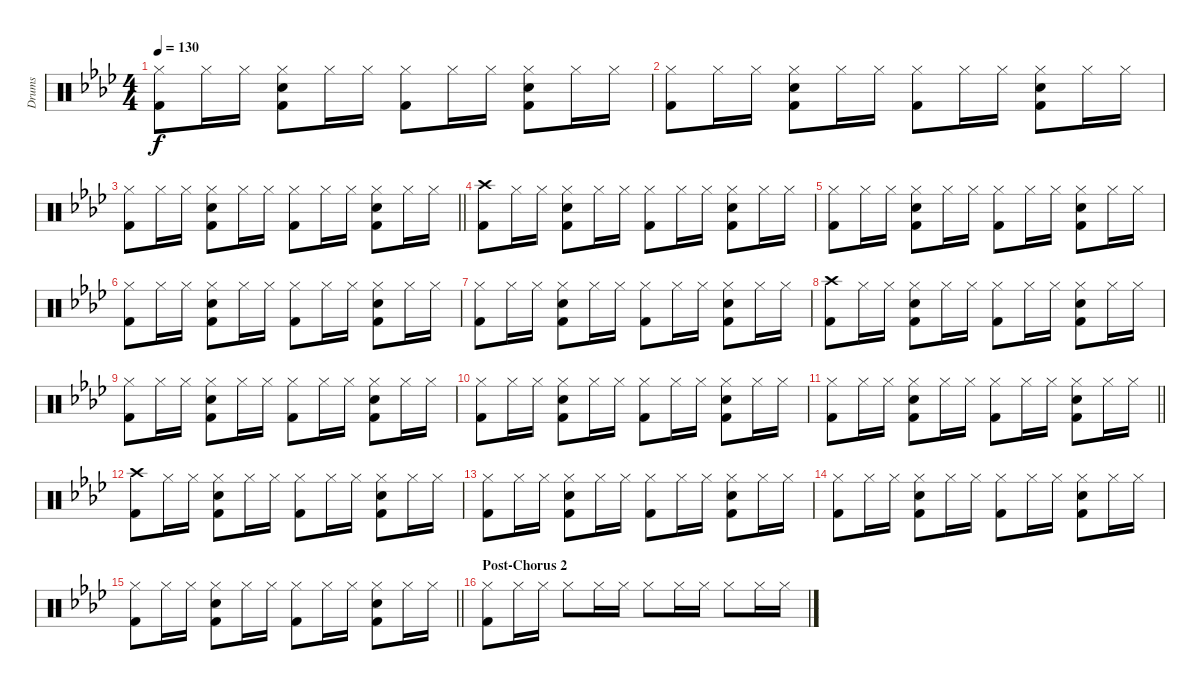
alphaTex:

\track ("Drums" "Drums") {instrument percussion}
\staff {score}
\articulation defaults
\ts (4 4)
\tempo 130
\clef neutral
\ks ab
("Hi-Hat (closed)" "Kick (hit) 2").8{dy f} "Hi-Hat (closed)".16 "Hi-Hat (closed)".16 ("Hi-Hat (closed)" "Snare (hit) 2" "Kick (hit) 2").8 "Hi-Hat (closed)".16 "Hi-Hat (closed)".16 ("Hi-Hat (closed)" "Kick (hit) 2").8 "Hi-Hat (closed)".16 "Hi-Hat (closed)".16 ("Hi-Hat (closed)" "Snare (hit) 2" "Kick (hit) 2").8 "Hi-Hat (closed)".16 "Hi-Hat (closed)".16 |
("Hi-Hat (closed)" "Kick (hit) 2").8 "Hi-Hat (closed)".16 "Hi-Hat (closed)".16 ("Hi-Hat (closed)" "Snare (hit) 2" "Kick (hit) 2").8 "Hi-Hat (closed)".16 "Hi-Hat (closed)".16 ("Hi-Hat (closed)" "Kick (hit) 2").8 "Hi-Hat (closed)".16 "Hi-Hat (closed)".16 ("Hi-Hat (closed)" "Snare (hit) 2" "Kick (hit) 2").8 "Hi-Hat (closed)".16 "Hi-Hat (closed)".16 |
\barLineRight lightlight
("Hi-Hat (closed)" "Kick (hit) 2").8 "Hi-Hat (closed)".16 "Hi-Hat (closed)".16 ("Hi-Hat (closed)" "Snare (hit) 2" "Kick (hit) 2").8 "Hi-Hat (closed)".16 "Hi-Hat (closed)".16 ("Hi-Hat (closed)" "Kick (hit) 2").8 "Hi-Hat (closed)".16 "Hi-Hat (closed)".16 ("Hi-Hat (closed)" "Snare (hit) 2" "Kick (hit) 2").8 "Hi-Hat (closed)".16 "Hi-Hat (closed)".16 |
("Crash high (hit)" "Kick (hit) 2").8 "Hi-Hat (closed)".16 "Hi-Hat (closed)".16 ("Hi-Hat (closed)" "Snare (hit) 2" "Kick (hit) 2").8 "Hi-Hat (closed)".16 "Hi-Hat (closed)".16 ("Hi-Hat (closed)" "Kick (hit) 2").8 "Hi-Hat (closed)".16 "Hi-Hat (closed)".16 ("Hi-Hat (closed)" "Snare (hit) 2" "Kick (hit) 2").8 "Hi-Hat (closed)".16 "Hi-Hat (closed)".16 |
("Hi-Hat (closed)" "Kick (hit) 2").8 "Hi-Hat (closed)".16 "Hi-Hat (closed)".16 ("Hi-Hat (closed)" "Snare (hit) 2" "Kick (hit) 2").8 "Hi-Hat (closed)".16 "Hi-Hat (closed)".16 ("Hi-Hat (closed)" "Kick (hit) 2").8 "Hi-Hat (closed)".16 "Hi-Hat (closed)".16 ("Hi-Hat (closed)" "Snare (hit) 2" "Kick (hit) 2").8 "Hi-Hat (closed)".16 "Hi-Hat (closed)".16 |
("Hi-Hat (closed)" "Kick (hit) 2").8 "Hi-Hat (closed)".16 "Hi-Hat (closed)".16 ("Hi-Hat (closed)" "Snare (hit) 2" "Kick (hit) 2").8 "Hi-Hat (closed)".16 "Hi-Hat (closed)".16 ("Hi-Hat (closed)" "Kick (hit) 2").8 "Hi-Hat (closed)".16 "Hi-Hat (closed)".16 ("Hi-Hat (closed)" "Snare (hit) 2" "Kick (hit) 2").8 "Hi-Hat (closed)".16 "Hi-Hat (closed)".16 |
("Hi-Hat (closed)" "Kick (hit) 2").8 "Hi-Hat (closed)".16 "Hi-Hat (closed)".16 ("Hi-Hat (closed)" "Snare (hit) 2" "Kick (hit) 2").8 "Hi-Hat (closed)".16 "Hi-Hat (closed)".16 ("Hi-Hat (closed)" "Kick (hit) 2").8 "Hi-Hat (closed)".16 "Hi-Hat (closed)".16 ("Hi-Hat (closed)" "Snare (hit) 2" "Kick (hit) 2").8 "Hi-Hat (closed)".16 "Hi-Hat (closed)".16 |
("Crash high (hit)" "Kick (hit) 2").8 "Hi-Hat (closed)".16 "Hi-Hat (closed)".16 ("Hi-Hat (closed)" "Snare (hit) 2" "Kick (hit) 2").8 "Hi-Hat (closed)".16 "Hi-Hat (closed)".16 ("Hi-Hat (closed)" "Kick (hit) 2").8 "Hi-Hat (closed)".16 "Hi-Hat (closed)".16 ("Hi-Hat (closed)" "Snare (hit) 2" "Kick (hit) 2").8 "Hi-Hat (closed)".16 "Hi-Hat (closed)".16 |
("Hi-Hat (closed)" "Kick (hit) 2").8 "Hi-Hat (closed)".16 "Hi-Hat (closed)".16 ("Hi-Hat (closed)" "Snare (hit) 2" "Kick (hit) 2").8 "Hi-Hat (closed)".16 "Hi-Hat (closed)".16 ("Hi-Hat (closed)" "Kick (hit) 2").8 "Hi-Hat (closed)".16 "Hi-Hat (closed)".16 ("Hi-Hat (closed)" "Snare (hit) 2" "Kick (hit) 2").8 "Hi-Hat (closed)".16 "Hi-Hat (closed)".16 |
("Hi-Hat (closed)" "Kick (hit) 2").8 "Hi-Hat (closed)".16 "Hi-Hat (closed)".16 ("Hi-Hat (closed)" "Snare (hit) 2" "Kick (hit) 2").8 "Hi-Hat (closed)".16 "Hi-Hat (closed)".16 ("Hi-Hat (closed)" "Kick (hit) 2").8 "Hi-Hat (closed)".16 "Hi-Hat (closed)".16 ("Hi-Hat (closed)" "Snare (hit) 2" "Kick (hit) 2").8 "Hi-Hat (closed)".16 "Hi-Hat (closed)".16 |
\barLineRight lightlight
("Hi-Hat (closed)" "Kick (hit) 2").8 "Hi-Hat (closed)".16 "Hi-Hat (closed)".16 ("Hi-Hat (closed)" "Snare (hit) 2" "Kick (hit) 2").8 "Hi-Hat (closed)".16 "Hi-Hat (closed)".16 ("Hi-Hat (closed)" "Kick (hit) 2").8 "Hi-Hat (closed)".16 "Hi-Hat (closed)".16 ("Hi-Hat (closed)" "Snare (hit) 2" "Kick (hit) 2").8 "Hi-Hat (closed)".16 "Hi-Hat (closed)".16 |
("Crash high (hit)" "Kick (hit) 2").8 "Hi-Hat (closed)".16 "Hi-Hat (closed)".16 ("Hi-Hat (closed)" "Snare (hit) 2" "Kick (hit) 2").8 "Hi-Hat (closed)".16 "Hi-Hat (closed)".16 ("Hi-Hat (closed)" "Kick (hit) 2").8 "Hi-Hat (closed)".16 "Hi-Hat (closed)".16 ("Hi-Hat (closed)" "Snare (hit) 2" "Kick (hit) 2").8 "Hi-Hat (closed)".16 "Hi-Hat (closed)".16 |
("Hi-Hat (closed)" "Kick (hit) 2").8 "Hi-Hat (closed)".16 "Hi-Hat (closed)".16 ("Hi-Hat (closed)" "Snare (hit) 2" "Kick (hit) 2").8 "Hi-Hat (closed)".16 "Hi-Hat (closed)".16 ("Hi-Hat (closed)" "Kick (hit) 2").8 "Hi-Hat (closed)".16 "Hi-Hat (closed)".16 ("Hi-Hat (closed)" "Snare (hit) 2" "Kick (hit) 2").8 "Hi-Hat (closed)".16 "Hi-Hat (closed)".16 |
("Hi-Hat (closed)" "Kick (hit) 2").8 "Hi-Hat (closed)".16 "Hi-Hat (closed)".16 ("Hi-Hat (closed)" "Snare (hit) 2" "Kick (hit) 2").8 "Hi-Hat (closed)".16 "Hi-Hat (closed)".16 ("Hi-Hat (closed)" "Kick (hit) 2").8 "Hi-Hat (closed)".16 "Hi-Hat (closed)".16 ("Hi-Hat (closed)" "Snare (hit) 2" "Kick (hit) 2").8 "Hi-Hat (closed)".16 "Hi-Hat (closed)".16 |
\barLineRight lightlight
("Hi-Hat (closed)" "Kick (hit) 2").8 "Hi-Hat (closed)".16 "Hi-Hat (closed)".16 ("Hi-Hat (closed)" "Snare (hit) 2" "Kick (hit) 2").8 "Hi-Hat (closed)".16 "Hi-Hat (closed)".16 ("Hi-Hat (closed)" "Kick (hit) 2").8 "Hi-Hat (closed)".16 "Hi-Hat (closed)".16 ("Hi-Hat (closed)" "Snare (hit) 2" "Kick (hit) 2").8 "Hi-Hat (closed)".16 "Hi-Hat (closed)".16 |
\section ("" "Post-Chorus 2")
("Hi-Hat (closed)" "Kick (hit) 2").8 "Hi-Hat (closed)".16 "Hi-Hat (closed)".16 "Hi-Hat (closed)".8 "Hi-Hat (closed)".16 "Hi-Hat (closed)".16 "Hi-Hat (closed)".8 "Hi-Hat (closed)".16 "Hi-Hat (closed)".16 "Hi-Hat (closed)".8 "Hi-Hat (closed)".16 "Hi-Hat (closed)".16
